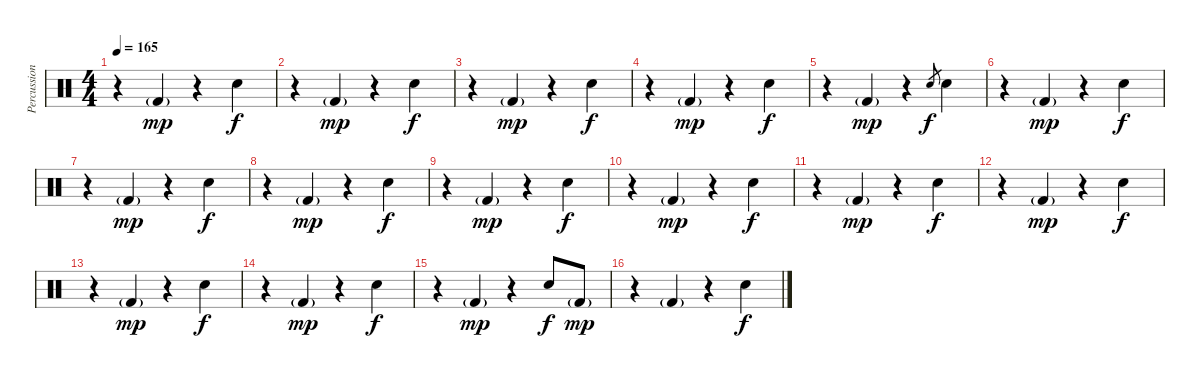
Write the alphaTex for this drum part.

\track ("Percussions" "Percussion") {instrument percussion}
\staff {score}
\articulation defaults
\ts (4 4)
\tempo 165
\clef neutral
\ks c
r.4{dy mp} "Kick (hit) 2"{g}.4 r.4 "Electric Snare (hit)".4{dy f} |
r.4 "Kick (hit) 2"{g}.4{dy mp} r.4 "Electric Snare (hit)".4{dy f} |
r.4 "Kick (hit) 2"{g}.4{dy mp} r.4 "Electric Snare (hit)".4{dy f} |
r.4 "Kick (hit) 2"{g}.4{dy mp} r.4 "Electric Snare (hit)".4{dy f} |
r.4 "Kick (hit) 2"{g}.4{dy mp} r.4 "Electric Snare (hit)".8{gr dy f} "Electric Snare (hit)".4 |
r.4 "Kick (hit) 2"{g}.4{dy mp} r.4 "Electric Snare (hit)".4{dy f} |
r.4 "Kick (hit) 2"{g}.4{dy mp} r.4 "Electric Snare (hit)".4{dy f} |
r.4 "Kick (hit) 2"{g}.4{dy mp} r.4 "Electric Snare (hit)".4{dy f} |
r.4 "Kick (hit) 2"{g}.4{dy mp} r.4 "Electric Snare (hit)".4{dy f} |
r.4 "Kick (hit) 2"{g}.4{dy mp} r.4 "Electric Snare (hit)".4{dy f} |
r.4 "Kick (hit) 2"{g}.4{dy mp} r.4 "Electric Snare (hit)".4{dy f} |
r.4 "Kick (hit) 2"{g}.4{dy mp} r.4 "Electric Snare (hit)".4{dy f} |
r.4 "Kick (hit) 2"{g}.4{dy mp} r.4 "Electric Snare (hit)".4{dy f} |
r.4 "Kick (hit) 2"{g}.4{dy mp} r.4 "Electric Snare (hit)".4{dy f} |
r.4 "Kick (hit) 2"{g}.4{dy mp} r.4 "Electric Snare (hit)".8{dy f} "Kick (hit) 2"{g}.8{dy mp} |
r.4 "Kick (hit) 2"{g}.4 r.4 "Electric Snare (hit)".4{dy f}
